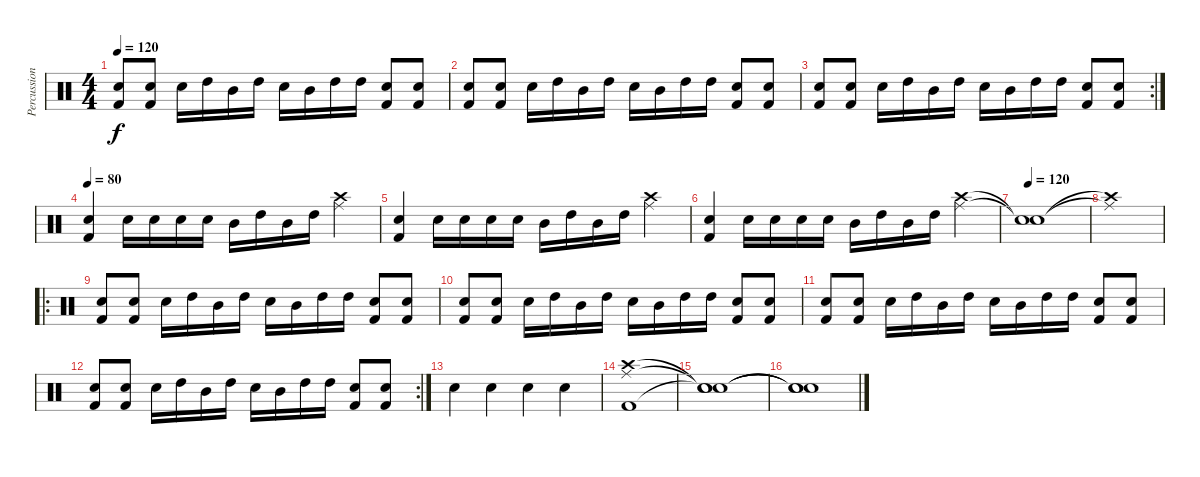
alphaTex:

\track ("Percussion" "Percussion") {instrument percussion}
\staff {score}
\articulation defaults
\ts (4 4)
\tempo 120
\clef neutral
\ks c
("Electric Snare (hit)" "Kick (hit) 2").8{dy f} ("Electric Snare (hit)" "Kick (hit) 2").8 "Electric Snare (hit)".16 "High Tom (hit)".16 "Mid Tom (hit)".16 "High Tom (hit)".16 "Electric Snare (hit)".16 "Mid Tom (hit)".16 "High Tom (hit)".16 "High Tom (hit)".16 ("Electric Snare (hit)" "Kick (hit) 2").8 ("Electric Snare (hit)" "Kick (hit) 2").8 |
("Electric Snare (hit)" "Kick (hit) 2").8 ("Electric Snare (hit)" "Kick (hit) 2").8 "Electric Snare (hit)".16 "High Tom (hit)".16 "Mid Tom (hit)".16 "High Tom (hit)".16 "Electric Snare (hit)".16 "Mid Tom (hit)".16 "High Tom (hit)".16 "High Tom (hit)".16 ("Electric Snare (hit)" "Kick (hit) 2").8 ("Electric Snare (hit)" "Kick (hit) 2").8 |
\rc 2
("Electric Snare (hit)" "Kick (hit) 2").8 ("Electric Snare (hit)" "Kick (hit) 2").8 "Electric Snare (hit)".16 "High Tom (hit)".16 "Mid Tom (hit)".16 "High Tom (hit)".16 "Electric Snare (hit)".16 "Mid Tom (hit)".16 "High Tom (hit)".16 "High Tom (hit)".16 ("Electric Snare (hit)" "Kick (hit) 2").8 ("Electric Snare (hit)" "Kick (hit) 2").8 |
\tempo 80
("Electric Snare (hit)" "Kick (hit) 2").4 "Electric Snare (hit)".16 "Electric Snare (hit)".16 "Electric Snare (hit)".16 "Electric Snare (hit)".16 "Mid Tom (hit)".16 "High Tom (hit)".16 "Mid Tom (hit)".16 "High Tom (hit)".16 ("Ride (middle)" "Crash high (hit)").4 |
("Electric Snare (hit)" "Kick (hit) 2").4 "Electric Snare (hit)".16 "Electric Snare (hit)".16 "Electric Snare (hit)".16 "Electric Snare (hit)".16 "Mid Tom (hit)".16 "High Tom (hit)".16 "Mid Tom (hit)".16 "High Tom (hit)".16 ("Ride (middle)" "Crash high (hit)").4 |
("Electric Snare (hit)" "Kick (hit) 2").4 "Electric Snare (hit)".16 "Electric Snare (hit)".16 "Electric Snare (hit)".16 "Electric Snare (hit)".16 "Mid Tom (hit)".16 "High Tom (hit)".16 "Mid Tom (hit)".16 "High Tom (hit)".16 ("Ride (middle)" "Crash high (hit)").4 |
\tempo 120
("Snare (hit)"{t} "Snare (hit)"{t}).1 |
("Ride (middle)"{t} "Crash high (hit)"{t}).1 |
\ro
("Electric Snare (hit)" "Kick (hit) 2").8 ("Electric Snare (hit)" "Kick (hit) 2").8 "Electric Snare (hit)".16 "High Tom (hit)".16 "Mid Tom (hit)".16 "High Tom (hit)".16 "Electric Snare (hit)".16 "Mid Tom (hit)".16 "High Tom (hit)".16 "High Tom (hit)".16 ("Electric Snare (hit)" "Kick (hit) 2").8 ("Electric Snare (hit)" "Kick (hit) 2").8 |
("Electric Snare (hit)" "Kick (hit) 2").8 ("Electric Snare (hit)" "Kick (hit) 2").8 "Electric Snare (hit)".16 "High Tom (hit)".16 "Mid Tom (hit)".16 "High Tom (hit)".16 "Electric Snare (hit)".16 "Mid Tom (hit)".16 "High Tom (hit)".16 "High Tom (hit)".16 ("Electric Snare (hit)" "Kick (hit) 2").8 ("Electric Snare (hit)" "Kick (hit) 2").8 |
("Electric Snare (hit)" "Kick (hit) 2").8 ("Electric Snare (hit)" "Kick (hit) 2").8 "Electric Snare (hit)".16 "High Tom (hit)".16 "Mid Tom (hit)".16 "High Tom (hit)".16 "Electric Snare (hit)".16 "Mid Tom (hit)".16 "High Tom (hit)".16 "High Tom (hit)".16 ("Electric Snare (hit)" "Kick (hit) 2").8 ("Electric Snare (hit)" "Kick (hit) 2").8 |
\rc 2
("Electric Snare (hit)" "Kick (hit) 2").8 ("Electric Snare (hit)" "Kick (hit) 2").8 "Electric Snare (hit)".16 "High Tom (hit)".16 "Mid Tom (hit)".16 "High Tom (hit)".16 "Electric Snare (hit)".16 "Mid Tom (hit)".16 "High Tom (hit)".16 "High Tom (hit)".16 ("Electric Snare (hit)" "Kick (hit) 2").8 ("Electric Snare (hit)" "Kick (hit) 2").8 |
"Electric Snare (hit)".4 "Electric Snare (hit)".4 "Electric Snare (hit)".4 "Electric Snare (hit)".4 |
("Crash high (hit)" "Ride (middle)" "Kick (hit) 2").1 |
("Snare (hit)"{t} "Snare (hit)"{t} "Snare (hit)"{t}).1 |
("Snare (hit)"{t} "Snare (hit)"{t} "Snare (hit)"{t}).1
